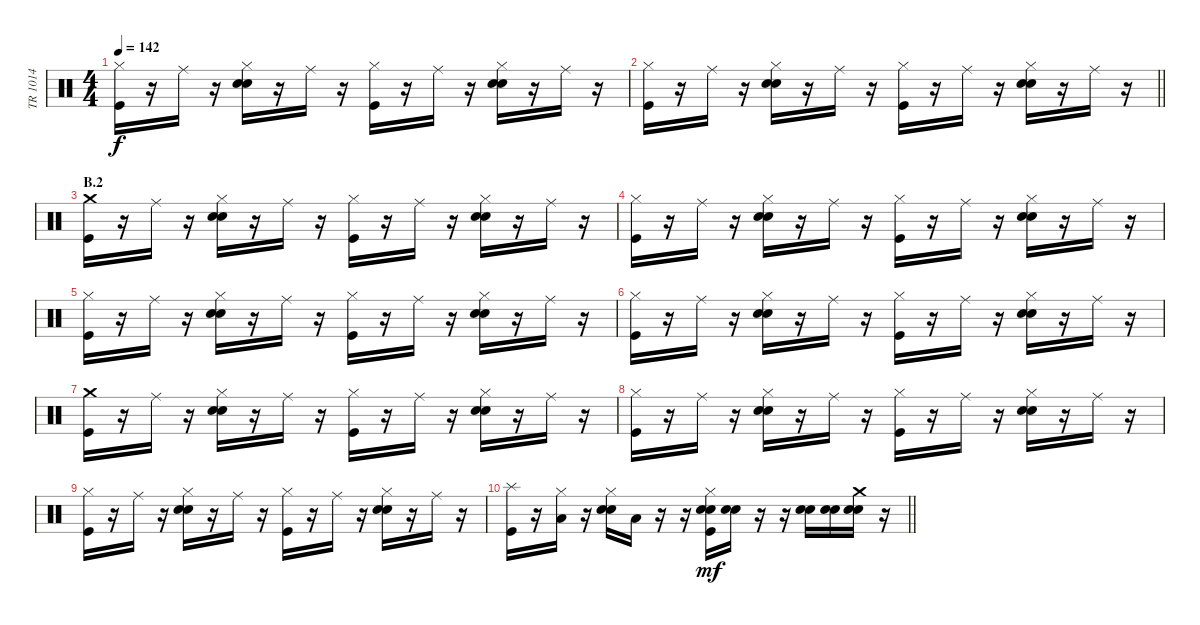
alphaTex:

\track ("TR 1014" "TR 1014") {instrument percussion}
\staff {score}
\articulation defaults
\ts (4 4)
\tempo 142
\clef neutral
\ks c
("Hi-Hat (closed)" "Kick (hit)").16{dy f} r.16 "Ride (middle)".16 r.16 ("Hi-Hat (closed)" "Electric Snare (hit)" "Snare (hit) 2").16 r.16 "Ride (middle)".16 r.16 ("Hi-Hat (closed)" "Kick (hit)").16 r.16 "Ride (middle)".16 r.16 ("Hi-Hat (closed)" "Electric Snare (hit)" "Snare (hit) 2").16 r.16 "Ride (middle)".16 r.16 |
\barLineRight lightlight
("Hi-Hat (closed)" "Kick (hit)").16 r.16 "Ride (middle)".16 r.16 ("Hi-Hat (closed)" "Electric Snare (hit)" "Snare (hit) 2").16 r.16 "Ride (middle)".16 r.16 ("Hi-Hat (closed)" "Kick (hit)").16 r.16 "Ride (middle)".16 r.16 ("Hi-Hat (closed)" "Electric Snare (hit)" "Snare (hit) 2").16 r.16 "Ride (middle)".16 r.16 |
\section ("" "B.2")
("Crash medium (hit)" "Kick (hit)").16 r.16 "Ride (middle)".16 r.16 ("Hi-Hat (closed)" "Electric Snare (hit)" "Snare (hit) 2").16 r.16 "Ride (middle)".16 r.16 ("Hi-Hat (closed)" "Kick (hit)").16 r.16 "Ride (middle)".16 r.16 ("Hi-Hat (closed)" "Electric Snare (hit)" "Snare (hit) 2").16 r.16 "Ride (middle)".16 r.16 |
("Hi-Hat (closed)" "Kick (hit)").16 r.16 "Ride (middle)".16 r.16 ("Hi-Hat (closed)" "Electric Snare (hit)" "Snare (hit) 2").16 r.16 "Ride (middle)".16 r.16 ("Hi-Hat (closed)" "Kick (hit)").16 r.16 "Ride (middle)".16 r.16 ("Hi-Hat (closed)" "Electric Snare (hit)" "Snare (hit) 2").16 r.16 "Ride (middle)".16 r.16 |
("Hi-Hat (closed)" "Kick (hit)").16 r.16 "Ride (middle)".16 r.16 ("Hi-Hat (closed)" "Electric Snare (hit)" "Snare (hit) 2").16 r.16 "Ride (middle)".16 r.16 ("Hi-Hat (closed)" "Kick (hit)").16 r.16 "Ride (middle)".16 r.16 ("Hi-Hat (closed)" "Electric Snare (hit)" "Snare (hit) 2").16 r.16 "Ride (middle)".16 r.16 |
("Hi-Hat (closed)" "Kick (hit)").16 r.16 "Ride (middle)".16 r.16 ("Hi-Hat (closed)" "Electric Snare (hit)" "Snare (hit) 2").16 r.16 "Ride (middle)".16 r.16 ("Hi-Hat (closed)" "Kick (hit)").16 r.16 "Ride (middle)".16 r.16 ("Hi-Hat (closed)" "Electric Snare (hit)" "Snare (hit) 2").16 r.16 "Ride (middle)".16 r.16 |
("Crash medium (hit)" "Kick (hit)").16 r.16 "Ride (middle)".16 r.16 ("Hi-Hat (closed)" "Electric Snare (hit)" "Snare (hit) 2").16 r.16 "Ride (middle)".16 r.16 ("Hi-Hat (closed)" "Kick (hit)").16 r.16 "Ride (middle)".16 r.16 ("Hi-Hat (closed)" "Electric Snare (hit)" "Snare (hit) 2").16 r.16 "Ride (middle)".16 r.16 |
("Hi-Hat (closed)" "Kick (hit)").16 r.16 "Ride (middle)".16 r.16 ("Hi-Hat (closed)" "Electric Snare (hit)" "Snare (hit) 2").16 r.16 "Ride (middle)".16 r.16 ("Hi-Hat (closed)" "Kick (hit)").16 r.16 "Ride (middle)".16 r.16 ("Hi-Hat (closed)" "Electric Snare (hit)" "Snare (hit) 2").16 r.16 "Ride (middle)".16 r.16 |
("Hi-Hat (closed)" "Kick (hit)").16 r.16 "Ride (middle)".16 r.16 ("Hi-Hat (closed)" "Electric Snare (hit)" "Snare (hit) 2").16 r.16 "Ride (middle)".16 r.16 ("Hi-Hat (closed)" "Kick (hit)").16 r.16 "Ride (middle)".16 r.16 ("Hi-Hat (closed)" "Electric Snare (hit)" "Snare (hit) 2").16 r.16 "Ride (middle)".16 r.16 |
\barLineRight lightlight
("Splash (hit)" "Kick (hit)").16 r.16 ("Hi-Hat (closed)" "Low Tom (hit)").16 r.16 ("Hi-Hat (closed)" "Electric Snare (hit)" "Snare (hit) 2").16 "Low Tom (hit)".16 r.16 r.16 ("Hi-Hat (closed)" "Electric Snare (hit)" "Snare (hit) 2" "Kick (hit)").16{dy mf} ("Electric Snare (hit)" "Snare (hit) 2").16 r.16 r.16 ("Electric Snare (hit)" "Snare (hit) 2").16 ("Electric Snare (hit)" "Snare (hit) 2").16 ("Crash medium (hit)" "Electric Snare (hit)" "Snare (hit) 2").16 r.16
